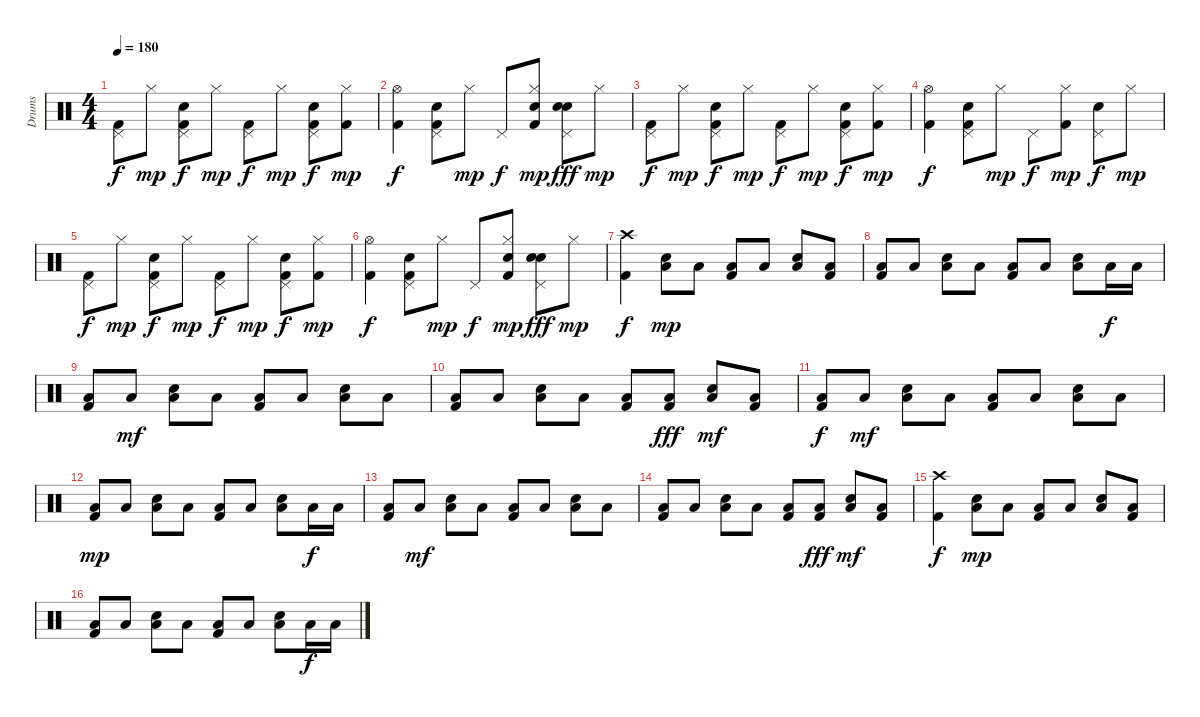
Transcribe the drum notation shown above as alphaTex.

\track ("Drums" "Drums") {instrument percussion}
\staff {score}
\articulation defaults
\ts (4 4)
\tempo 180
\clef neutral
\ks c
("Pedal Hi-Hat (hit)" "Kick (hit) 2").8{dy f} "Hi-Hat (closed)".8{dy mp} ("Pedal Hi-Hat (hit)" "Electric Snare (hit)" "Kick (hit) 2").8{dy f} "Hi-Hat (closed)".8{dy mp} ("Pedal Hi-Hat (hit)" "Kick (hit) 2").8{dy f} "Hi-Hat (closed)".8{dy mp} ("Pedal Hi-Hat (hit)" "Electric Snare (hit)" "Kick (hit) 2").8{dy f} ("Hi-Hat (closed)" "Kick (hit) 2").8{dy mp} |
("Hi-Hat (open)" "Kick (hit) 2").4{dy f} ("Pedal Hi-Hat (hit)" "Electric Snare (hit)" "Kick (hit) 2").8 "Hi-Hat (closed)".8{dy mp} "Pedal Hi-Hat (hit)".8{dy f} ("Hand Clap (hit)" "Hi-Hat (closed)" "Kick (hit) 2").8{dy mp} ("Hand Clap (hit)" "Pedal Hi-Hat (hit)" "Electric Snare (hit)").8{dy fff} "Hi-Hat (closed)".8{dy mp} |
("Pedal Hi-Hat (hit)" "Kick (hit) 2").8{dy f} "Hi-Hat (closed)".8{dy mp} ("Pedal Hi-Hat (hit)" "Electric Snare (hit)" "Kick (hit) 2").8{dy f} "Hi-Hat (closed)".8{dy mp} ("Pedal Hi-Hat (hit)" "Kick (hit) 2").8{dy f} "Hi-Hat (closed)".8{dy mp} ("Pedal Hi-Hat (hit)" "Electric Snare (hit)" "Kick (hit) 2").8{dy f} ("Hi-Hat (closed)" "Kick (hit) 2").8{dy mp} |
("Hi-Hat (open)" "Kick (hit) 2").4{dy f} ("Pedal Hi-Hat (hit)" "Electric Snare (hit)" "Kick (hit) 2").8 "Hi-Hat (closed)".8{dy mp} "Pedal Hi-Hat (hit)".8{dy f} ("Hi-Hat (closed)" "Kick (hit) 2").8{dy mp} ("Pedal Hi-Hat (hit)" "Electric Snare (hit)").8{dy f} "Hi-Hat (closed)".8{dy mp} |
("Pedal Hi-Hat (hit)" "Kick (hit) 2").8{dy f} "Hi-Hat (closed)".8{dy mp} ("Pedal Hi-Hat (hit)" "Electric Snare (hit)" "Kick (hit) 2").8{dy f} "Hi-Hat (closed)".8{dy mp} ("Pedal Hi-Hat (hit)" "Kick (hit) 2").8{dy f} "Hi-Hat (closed)".8{dy mp} ("Pedal Hi-Hat (hit)" "Electric Snare (hit)" "Kick (hit) 2").8{dy f} ("Hi-Hat (closed)" "Kick (hit) 2").8{dy mp} |
("Hi-Hat (open)" "Kick (hit) 2").4{dy f} ("Pedal Hi-Hat (hit)" "Electric Snare (hit)" "Kick (hit) 2").8 "Hi-Hat (closed)".8{dy mp} "Pedal Hi-Hat (hit)".8{dy f} ("Hand Clap (hit)" "Hi-Hat (closed)" "Kick (hit) 2").8{dy mp} ("Hand Clap (hit)" "Pedal Hi-Hat (hit)" "Electric Snare (hit)").8{dy fff} "Hi-Hat (closed)".8{dy mp} |
("Crash high (hit)" "Kick (hit) 2").4{dy f} ("Low Floor Tom (hit)" "Electric Snare (hit)").8{dy mp} "Low Floor Tom (hit)".8 ("Low Floor Tom (hit)" "Kick (hit) 2").8 "Low Floor Tom (hit)".8 ("Low Floor Tom (hit)" "Electric Snare (hit)").8 ("Low Floor Tom (hit)" "Kick (hit) 2").8 |
("Low Floor Tom (hit)" "Kick (hit) 2").8 "Low Floor Tom (hit)".8 ("Low Floor Tom (hit)" "Electric Snare (hit)").8 "Low Floor Tom (hit)".8 ("Low Floor Tom (hit)" "Kick (hit) 2").8 "Low Floor Tom (hit)".8 ("Low Floor Tom (hit)" "Electric Snare (hit)").8 "Low Tom (hit)".16{dy f} "Low Tom (hit)".16 |
("Low Floor Tom (hit)" "Kick (hit) 2").8 "Low Floor Tom (hit)".8{dy mf} ("Low Floor Tom (hit)" "Electric Snare (hit)").8 "Low Floor Tom (hit)".8 ("Low Floor Tom (hit)" "Kick (hit) 2").8 "Low Floor Tom (hit)".8 ("Low Floor Tom (hit)" "Electric Snare (hit)").8 "Low Floor Tom (hit)".8 |
("Low Floor Tom (hit)" "Kick (hit) 2").8 "Low Floor Tom (hit)".8 ("Low Floor Tom (hit)" "Electric Snare (hit)").8 "Low Floor Tom (hit)".8 ("Low Floor Tom (hit)" "Kick (hit) 2").8 ("Low Tom (hit)" "Kick (hit) 2").8{dy fff} ("Low Floor Tom (hit)" "Electric Snare (hit)").8{dy mf} ("Low Floor Tom (hit)" "Kick (hit) 2").8 |
("Low Floor Tom (hit)" "Kick (hit) 2").8{dy f} "Low Floor Tom (hit)".8{dy mf} ("Low Floor Tom (hit)" "Electric Snare (hit)").8 "Low Floor Tom (hit)".8 ("Low Floor Tom (hit)" "Kick (hit) 2").8 "Low Floor Tom (hit)".8 ("Low Floor Tom (hit)" "Electric Snare (hit)").8 "Low Floor Tom (hit)".8 |
("Low Floor Tom (hit)" "Kick (hit) 2").8{dy mp} "Low Floor Tom (hit)".8 ("Low Floor Tom (hit)" "Electric Snare (hit)").8 "Low Floor Tom (hit)".8 ("Low Floor Tom (hit)" "Kick (hit) 2").8 "Low Floor Tom (hit)".8 ("Low Floor Tom (hit)" "Electric Snare (hit)").8 "Low Tom (hit)".16{dy f} "Low Tom (hit)".16 |
("Low Floor Tom (hit)" "Kick (hit) 2").8 "Low Floor Tom (hit)".8{dy mf} ("Low Floor Tom (hit)" "Electric Snare (hit)").8 "Low Floor Tom (hit)".8 ("Low Floor Tom (hit)" "Kick (hit) 2").8 "Low Floor Tom (hit)".8 ("Low Floor Tom (hit)" "Electric Snare (hit)").8 "Low Floor Tom (hit)".8 |
("Low Floor Tom (hit)" "Kick (hit) 2").8 "Low Floor Tom (hit)".8 ("Low Floor Tom (hit)" "Electric Snare (hit)").8 "Low Floor Tom (hit)".8 ("Low Floor Tom (hit)" "Kick (hit) 2").8 ("Low Tom (hit)" "Kick (hit) 2").8{dy fff} ("Low Floor Tom (hit)" "Electric Snare (hit)").8{dy mf} ("Low Floor Tom (hit)" "Kick (hit) 2").8 |
("Crash high (hit)" "Kick (hit) 2").4{dy f} ("Low Floor Tom (hit)" "Electric Snare (hit)").8{dy mp} "Low Floor Tom (hit)".8 ("Low Floor Tom (hit)" "Kick (hit) 2").8 "Low Floor Tom (hit)".8 ("Low Floor Tom (hit)" "Electric Snare (hit)").8 ("Low Floor Tom (hit)" "Kick (hit) 2").8 |
("Low Floor Tom (hit)" "Kick (hit) 2").8 "Low Floor Tom (hit)".8 ("Low Floor Tom (hit)" "Electric Snare (hit)").8 "Low Floor Tom (hit)".8 ("Low Floor Tom (hit)" "Kick (hit) 2").8 "Low Floor Tom (hit)".8 ("Low Floor Tom (hit)" "Electric Snare (hit)").8 "Low Tom (hit)".16{dy f} "Low Tom (hit)".16
